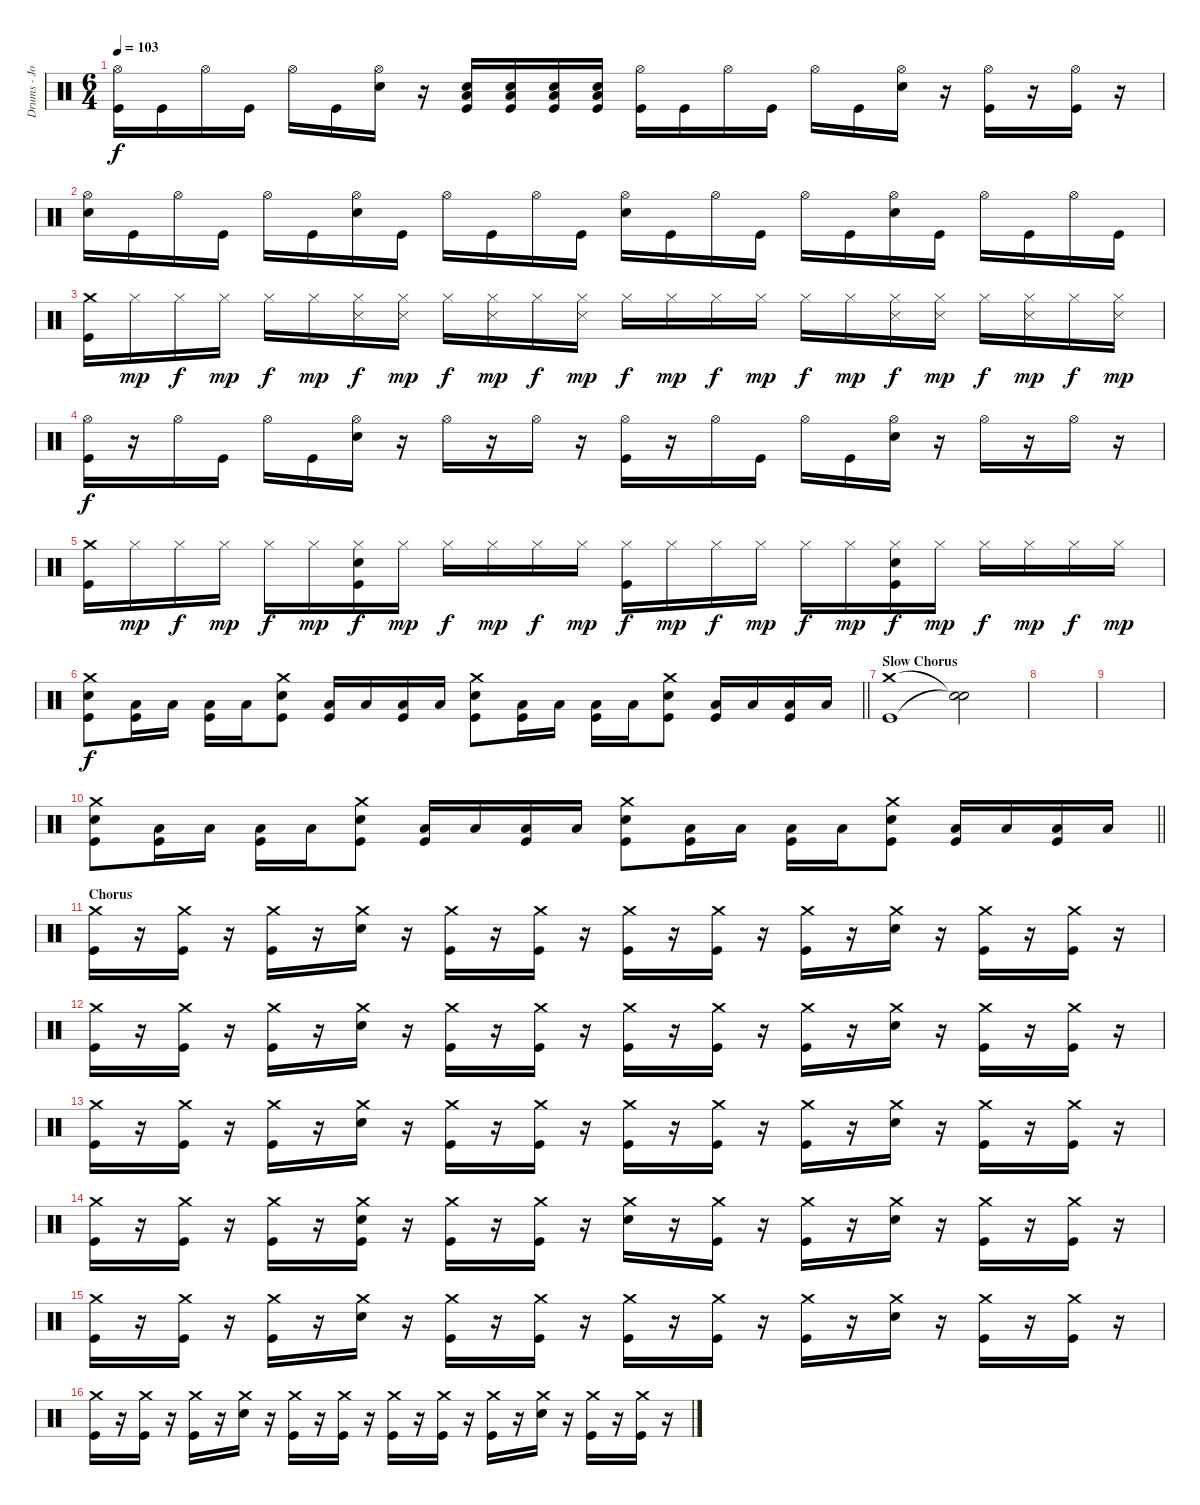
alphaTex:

\track ("Drums - Josh Wills" "Drums - Jo") {instrument percussion}
\staff {score}
\articulation defaults
\ts (6 4)
\tempo 103
\clef neutral
\ks c
("Hi-Hat (open)" "Kick (hit)").16{dy f} "Kick (hit)".16 "Hi-Hat (open)".16 "Kick (hit)".16 "Hi-Hat (open)".16 "Kick (hit)".16 ("Hi-Hat (open)" "Electric Snare (hit)").16 r.16 ("Low Tom (hit)" "Electric Snare (hit)" "Kick (hit)").16 ("Low Tom (hit)" "Electric Snare (hit)" "Kick (hit)").16 ("Low Tom (hit)" "Electric Snare (hit)" "Kick (hit)").16 ("Low Tom (hit)" "Electric Snare (hit)" "Kick (hit)").16 ("Hi-Hat (open)" "Kick (hit)").16 "Kick (hit)".16 "Hi-Hat (open)".16 "Kick (hit)".16 "Hi-Hat (open)".16 "Kick (hit)".16 ("Hi-Hat (open)" "Electric Snare (hit)").16 r.16 ("Hi-Hat (open)" "Kick (hit)").16 r.16 ("Hi-Hat (open)" "Kick (hit)").16 r.16 |
("Hi-Hat (open)" "Electric Snare (hit)").16 "Kick (hit)".16 "Hi-Hat (open)".16 "Kick (hit)".16 "Hi-Hat (open)".16 "Kick (hit)".16 ("Hi-Hat (open)" "Electric Snare (hit)").16 "Kick (hit)".16 "Hi-Hat (open)".16 "Kick (hit)".16 "Hi-Hat (open)".16 "Kick (hit)".16 ("Hi-Hat (open)" "Electric Snare (hit)").16 "Kick (hit)".16 "Hi-Hat (open)".16 "Kick (hit)".16 "Hi-Hat (open)".16 "Kick (hit)".16 ("Hi-Hat (open)" "Electric Snare (hit)").16 "Kick (hit)".16 "Hi-Hat (open)".16 "Kick (hit)".16 "Hi-Hat (open)".16 "Kick (hit)".16 |
("Crash medium (hit)" "Kick (hit)").16 "Hi-Hat (closed)".16{dy mp} "Hi-Hat (closed)".16{dy f} "Hi-Hat (closed)".16{dy mp} "Hi-Hat (closed)".16{dy f} "Hi-Hat (closed)".16{dy mp} ("Hi-Hat (closed)" "Snare (side stick) 3").16{dy f} ("Hi-Hat (closed)" "Snare (side stick) 3").16{dy mp} "Hi-Hat (closed)".16{dy f} ("Hi-Hat (closed)" "Snare (side stick) 3").16{dy mp} "Hi-Hat (closed)".16{dy f} ("Hi-Hat (closed)" "Snare (side stick) 3").16{dy mp} "Hi-Hat (closed)".16{dy f} "Hi-Hat (closed)".16{dy mp} "Hi-Hat (closed)".16{dy f} "Hi-Hat (closed)".16{dy mp} "Hi-Hat (closed)".16{dy f} "Hi-Hat (closed)".16{dy mp} ("Hi-Hat (closed)" "Snare (side stick) 3").16{dy f} ("Hi-Hat (closed)" "Snare (side stick) 3").16{dy mp} "Hi-Hat (closed)".16{dy f} ("Hi-Hat (closed)" "Snare (side stick) 3").16{dy mp} "Hi-Hat (closed)".16{dy f} ("Hi-Hat (closed)" "Snare (side stick) 3").16{dy mp} |
("Hi-Hat (open)" "Kick (hit)").16{dy f} r.16 "Hi-Hat (open)".16 "Kick (hit)".16 "Hi-Hat (open)".16 "Kick (hit)".16 ("Hi-Hat (open)" "Electric Snare (hit)").16 r.16 "Hi-Hat (open)".16 r.16 "Hi-Hat (open)".16 r.16 ("Hi-Hat (open)" "Kick (hit)").16 r.16 "Hi-Hat (open)".16 "Kick (hit)".16 "Hi-Hat (open)".16 "Kick (hit)".16 ("Hi-Hat (open)" "Electric Snare (hit)").16 r.16 "Hi-Hat (open)".16 r.16 "Hi-Hat (open)".16 r.16 |
("Crash medium (hit)" "Kick (hit)").16 "Hi-Hat (closed)".16{dy mp} "Hi-Hat (closed)".16{dy f} "Hi-Hat (closed)".16{dy mp} "Hi-Hat (closed)".16{dy f} "Hi-Hat (closed)".16{dy mp} ("Hi-Hat (closed)" "Electric Snare (hit)" "Kick (hit)").16{dy f} "Hi-Hat (closed)".16{dy mp} "Hi-Hat (closed)".16{dy f} "Hi-Hat (closed)".16{dy mp} "Hi-Hat (closed)".16{dy f} "Hi-Hat (closed)".16{dy mp} ("Hi-Hat (closed)" "Kick (hit)").16{dy f} "Hi-Hat (closed)".16{dy mp} "Hi-Hat (closed)".16{dy f} "Hi-Hat (closed)".16{dy mp} "Hi-Hat (closed)".16{dy f} "Hi-Hat (closed)".16{dy mp} ("Hi-Hat (closed)" "Electric Snare (hit)" "Kick (hit)").16{dy f} "Hi-Hat (closed)".16{dy mp} "Hi-Hat (closed)".16{dy f} "Hi-Hat (closed)".16{dy mp} "Hi-Hat (closed)".16{dy f} "Hi-Hat (closed)".16{dy mp} |
\barLineRight lightlight
("Crash medium (hit)" "Electric Snare (hit)" "Kick (hit)").8{dy f} ("Low Tom (hit)" "Kick (hit)").16 "Low Tom (hit)".16 ("Low Tom (hit)" "Kick (hit)").16 "Low Tom (hit)".16 ("Crash medium (hit)" "Electric Snare (hit)" "Kick (hit)").8 ("Low Tom (hit)" "Kick (hit)").16 "Low Tom (hit)".16 ("Low Tom (hit)" "Kick (hit)").16 "Low Tom (hit)".16 ("Crash medium (hit)" "Electric Snare (hit)" "Kick (hit)").8 ("Low Tom (hit)" "Kick (hit)").16 "Low Tom (hit)".16 ("Low Tom (hit)" "Kick (hit)").16 "Low Tom (hit)".16 ("Crash medium (hit)" "Electric Snare (hit)" "Kick (hit)").8 ("Low Tom (hit)" "Kick (hit)").16 "Low Tom (hit)".16 ("Low Tom (hit)" "Kick (hit)").16 "Low Tom (hit)".16 |
\section ("" "Slow Chorus")
("Crash medium (hit)" "Kick (hit)").1 ("Snare (hit)"{t} "Snare (hit)"{t}).2 |
|
|
\barLineRight lightlight
("Crash medium (hit)" "Electric Snare (hit)" "Kick (hit)").8 ("Low Tom (hit)" "Kick (hit)").16 "Low Tom (hit)".16 ("Low Tom (hit)" "Kick (hit)").16 "Low Tom (hit)".16 ("Crash medium (hit)" "Electric Snare (hit)" "Kick (hit)").8 ("Low Tom (hit)" "Kick (hit)").16 "Low Tom (hit)".16 ("Low Tom (hit)" "Kick (hit)").16 "Low Tom (hit)".16 ("Crash medium (hit)" "Electric Snare (hit)" "Kick (hit)").8 ("Low Tom (hit)" "Kick (hit)").16 "Low Tom (hit)".16 ("Low Tom (hit)" "Kick (hit)").16 "Low Tom (hit)".16 ("Crash medium (hit)" "Electric Snare (hit)" "Kick (hit)").8 ("Low Tom (hit)" "Kick (hit)").16 "Low Tom (hit)".16 ("Low Tom (hit)" "Kick (hit)").16 "Low Tom (hit)".16 |
\section ("" "Chorus")
("Crash medium (hit)" "Kick (hit)").16 r.16 ("Crash medium (hit)" "Kick (hit)").16 r.16 ("Crash medium (hit)" "Kick (hit)").16 r.16 ("Crash medium (hit)" "Electric Snare (hit)").16 r.16 ("Crash medium (hit)" "Kick (hit)").16 r.16 ("Crash medium (hit)" "Kick (hit)").16 r.16 ("Crash medium (hit)" "Kick (hit)").16 r.16 ("Crash medium (hit)" "Kick (hit)").16 r.16 ("Crash medium (hit)" "Kick (hit)").16 r.16 ("Crash medium (hit)" "Electric Snare (hit)").16 r.16 ("Crash medium (hit)" "Kick (hit)").16 r.16 ("Crash medium (hit)" "Kick (hit)").16 r.16 |
("Crash medium (hit)" "Kick (hit)").16 r.16 ("Crash medium (hit)" "Kick (hit)").16 r.16 ("Crash medium (hit)" "Kick (hit)").16 r.16 ("Crash medium (hit)" "Electric Snare (hit)").16 r.16 ("Crash medium (hit)" "Kick (hit)").16 r.16 ("Crash medium (hit)" "Kick (hit)").16 r.16 ("Crash medium (hit)" "Kick (hit)").16 r.16 ("Crash medium (hit)" "Kick (hit)").16 r.16 ("Crash medium (hit)" "Kick (hit)").16 r.16 ("Crash medium (hit)" "Electric Snare (hit)").16 r.16 ("Crash medium (hit)" "Kick (hit)").16 r.16 ("Crash medium (hit)" "Kick (hit)").16 r.16 |
("Crash medium (hit)" "Kick (hit)").16 r.16 ("Crash medium (hit)" "Kick (hit)").16 r.16 ("Crash medium (hit)" "Kick (hit)").16 r.16 ("Crash medium (hit)" "Electric Snare (hit)").16 r.16 ("Crash medium (hit)" "Kick (hit)").16 r.16 ("Crash medium (hit)" "Kick (hit)").16 r.16 ("Crash medium (hit)" "Kick (hit)").16 r.16 ("Crash medium (hit)" "Kick (hit)").16 r.16 ("Crash medium (hit)" "Kick (hit)").16 r.16 ("Crash medium (hit)" "Electric Snare (hit)").16 r.16 ("Crash medium (hit)" "Kick (hit)").16 r.16 ("Crash medium (hit)" "Kick (hit)").16 r.16 |
("Crash medium (hit)" "Kick (hit)").16 r.16 ("Crash medium (hit)" "Kick (hit)").16 r.16 ("Crash medium (hit)" "Kick (hit)").16 r.16 ("Crash medium (hit)" "Electric Snare (hit)" "Kick (hit)").16 r.16 ("Crash medium (hit)" "Kick (hit)").16 r.16 ("Crash medium (hit)" "Kick (hit)").16 r.16 ("Crash medium (hit)" "Electric Snare (hit)").16 r.16 ("Crash medium (hit)" "Kick (hit)").16 r.16 ("Crash medium (hit)" "Kick (hit)").16 r.16 ("Crash medium (hit)" "Electric Snare (hit)").16 r.16 ("Crash medium (hit)" "Kick (hit)").16 r.16 ("Crash medium (hit)" "Kick (hit)").16 r.16 |
("Crash medium (hit)" "Kick (hit)").16 r.16 ("Crash medium (hit)" "Kick (hit)").16 r.16 ("Crash medium (hit)" "Kick (hit)").16 r.16 ("Crash medium (hit)" "Electric Snare (hit)").16 r.16 ("Crash medium (hit)" "Kick (hit)").16 r.16 ("Crash medium (hit)" "Kick (hit)").16 r.16 ("Crash medium (hit)" "Kick (hit)").16 r.16 ("Crash medium (hit)" "Kick (hit)").16 r.16 ("Crash medium (hit)" "Kick (hit)").16 r.16 ("Crash medium (hit)" "Electric Snare (hit)").16 r.16 ("Crash medium (hit)" "Kick (hit)").16 r.16 ("Crash medium (hit)" "Kick (hit)").16 r.16 |
("Crash medium (hit)" "Kick (hit)").16 r.16 ("Crash medium (hit)" "Kick (hit)").16 r.16 ("Crash medium (hit)" "Kick (hit)").16 r.16 ("Crash medium (hit)" "Electric Snare (hit)").16 r.16 ("Crash medium (hit)" "Kick (hit)").16 r.16 ("Crash medium (hit)" "Kick (hit)").16 r.16 ("Crash medium (hit)" "Kick (hit)").16 r.16 ("Crash medium (hit)" "Kick (hit)").16 r.16 ("Crash medium (hit)" "Kick (hit)").16 r.16 ("Crash medium (hit)" "Electric Snare (hit)").16 r.16 ("Crash medium (hit)" "Kick (hit)").16 r.16 ("Crash medium (hit)" "Kick (hit)").16 r.16
